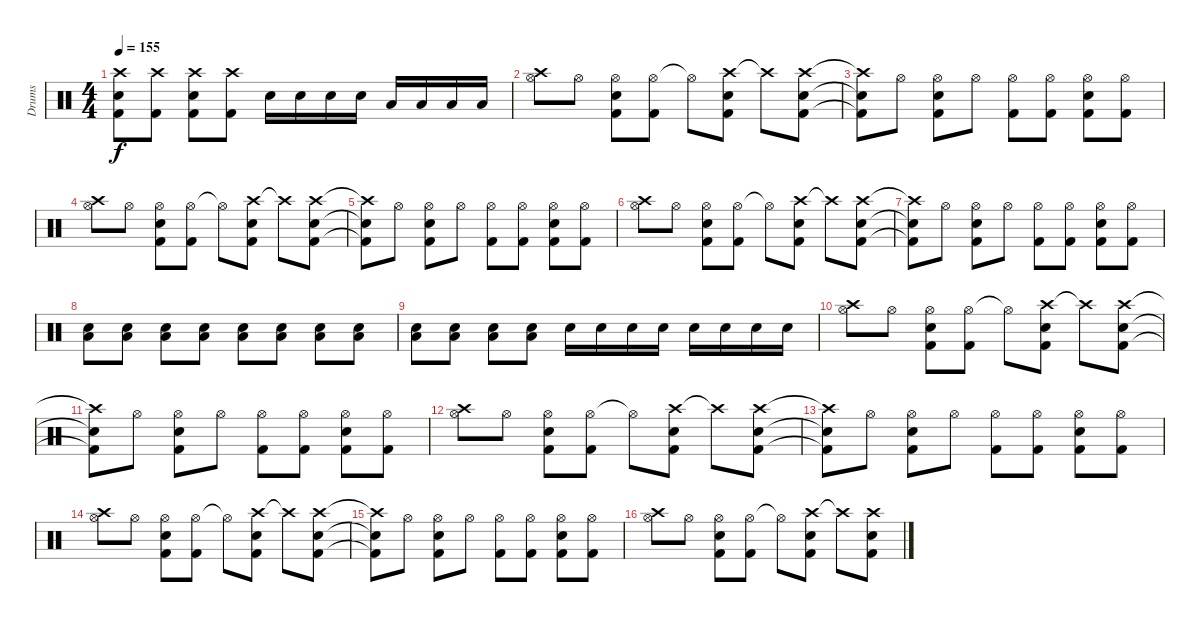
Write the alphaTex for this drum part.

\track ("Drums" "Drums") {instrument percussion}
\staff {score}
\articulation defaults
\ts (4 4)
\tempo 155
\clef neutral
\ks c
("Crash high (hit)" "Snare (hit) 2" "Kick (hit) 2").8{dy f} ("Crash high (hit)" "Kick (hit) 2").8 ("Crash high (hit)" "Snare (hit) 2" "Kick (hit) 2").8 ("Crash high (hit)" "Kick (hit) 2").8 "Snare (hit) 2".16 "Snare (hit) 2".16 "Snare (hit) 2".16 "Snare (hit) 2".16 "Low Floor Tom (hit)".16 "Low Floor Tom (hit)".16 "Low Floor Tom (hit)".16 "Low Floor Tom (hit)".16 |
("Crash high (hit)" "Hi-Hat (open)").8 "Hi-Hat (open)".8 ("Hi-Hat (open)" "Kick (hit) 2" "Snare (hit) 2").8 ("Hi-Hat (open)" "Kick (hit) 2").8 "Hi-Hat (open)"{t}.8 ("Crash high (hit)" "Kick (hit) 2" "Snare (hit) 2").8 "Crash high (hit)"{t}.8 ("Crash high (hit)" "Kick (hit) 2" "Snare (hit) 2").8 |
("Crash high (hit)"{t} "Kick (hit) 2"{t} "Snare (hit) 2"{t}).8 "Hi-Hat (open)".8 ("Hi-Hat (open)" "Kick (hit) 2" "Snare (hit) 2").8 "Hi-Hat (open)".8 ("Hi-Hat (open)" "Kick (hit) 2").8 ("Hi-Hat (open)" "Kick (hit) 2").8 ("Hi-Hat (open)" "Kick (hit) 2" "Snare (hit) 2").8 ("Hi-Hat (open)" "Kick (hit) 2").8 |
("Crash high (hit)" "Hi-Hat (open)").8 "Hi-Hat (open)".8 ("Hi-Hat (open)" "Kick (hit) 2" "Snare (hit) 2").8 ("Hi-Hat (open)" "Kick (hit) 2").8 "Hi-Hat (open)"{t}.8 ("Crash high (hit)" "Kick (hit) 2" "Snare (hit) 2").8 "Crash high (hit)"{t}.8 ("Crash high (hit)" "Kick (hit) 2" "Snare (hit) 2").8 |
("Crash high (hit)"{t} "Kick (hit) 2"{t} "Snare (hit) 2"{t}).8 "Hi-Hat (open)".8 ("Hi-Hat (open)" "Kick (hit) 2" "Snare (hit) 2").8 "Hi-Hat (open)".8 ("Hi-Hat (open)" "Kick (hit) 2").8 ("Hi-Hat (open)" "Kick (hit) 2").8 ("Hi-Hat (open)" "Kick (hit) 2" "Snare (hit) 2").8 ("Hi-Hat (open)" "Kick (hit) 2").8 |
("Crash high (hit)" "Hi-Hat (open)").8 "Hi-Hat (open)".8 ("Hi-Hat (open)" "Kick (hit) 2" "Snare (hit) 2").8 ("Hi-Hat (open)" "Kick (hit) 2").8 "Hi-Hat (open)"{t}.8 ("Crash high (hit)" "Kick (hit) 2" "Snare (hit) 2").8 "Crash high (hit)"{t}.8 ("Crash high (hit)" "Kick (hit) 2" "Snare (hit) 2").8 |
("Crash high (hit)"{t} "Kick (hit) 2"{t} "Snare (hit) 2"{t}).8 "Hi-Hat (open)".8 ("Hi-Hat (open)" "Kick (hit) 2" "Snare (hit) 2").8 "Hi-Hat (open)".8 ("Hi-Hat (open)" "Kick (hit) 2").8 ("Hi-Hat (open)" "Kick (hit) 2").8 ("Hi-Hat (open)" "Kick (hit) 2" "Snare (hit) 2").8 ("Hi-Hat (open)" "Kick (hit) 2").8 |
("Snare (hit) 2" "Low Floor Tom (hit)").8 ("Snare (hit) 2" "Low Floor Tom (hit)").8 ("Snare (hit) 2" "Low Floor Tom (hit)").8 ("Snare (hit) 2" "Low Floor Tom (hit)").8 ("Snare (hit) 2" "Low Floor Tom (hit)").8 ("Snare (hit) 2" "Low Floor Tom (hit)").8 ("Snare (hit) 2" "Low Floor Tom (hit)").8 ("Snare (hit) 2" "Low Floor Tom (hit)").8 |
("Snare (hit) 2" "Low Floor Tom (hit)").8 ("Snare (hit) 2" "Low Floor Tom (hit)").8 ("Snare (hit) 2" "Low Floor Tom (hit)").8 ("Snare (hit) 2" "Low Floor Tom (hit)").8 "Snare (hit) 2".16 "Snare (hit) 2".16 "Snare (hit) 2".16 "Snare (hit) 2".16 "Snare (hit) 2".16 "Snare (hit) 2".16 "Snare (hit) 2".16 "Snare (hit) 2".16 |
("Crash high (hit)" "Hi-Hat (open)").8 "Hi-Hat (open)".8 ("Hi-Hat (open)" "Kick (hit) 2" "Snare (hit) 2").8 ("Hi-Hat (open)" "Kick (hit) 2").8 "Hi-Hat (open)"{t}.8 ("Crash high (hit)" "Kick (hit) 2" "Snare (hit) 2").8 "Crash high (hit)"{t}.8 ("Crash high (hit)" "Kick (hit) 2" "Snare (hit) 2").8 |
("Crash high (hit)"{t} "Kick (hit) 2"{t} "Snare (hit) 2"{t}).8 "Hi-Hat (open)".8 ("Hi-Hat (open)" "Kick (hit) 2" "Snare (hit) 2").8 "Hi-Hat (open)".8 ("Hi-Hat (open)" "Kick (hit) 2").8 ("Hi-Hat (open)" "Kick (hit) 2").8 ("Hi-Hat (open)" "Kick (hit) 2" "Snare (hit) 2").8 ("Hi-Hat (open)" "Kick (hit) 2").8 |
("Crash high (hit)" "Hi-Hat (open)").8 "Hi-Hat (open)".8 ("Hi-Hat (open)" "Kick (hit) 2" "Snare (hit) 2").8 ("Hi-Hat (open)" "Kick (hit) 2").8 "Hi-Hat (open)"{t}.8 ("Crash high (hit)" "Kick (hit) 2" "Snare (hit) 2").8 "Crash high (hit)"{t}.8 ("Crash high (hit)" "Kick (hit) 2" "Snare (hit) 2").8 |
("Crash high (hit)"{t} "Kick (hit) 2"{t} "Snare (hit) 2"{t}).8 "Hi-Hat (open)".8 ("Hi-Hat (open)" "Kick (hit) 2" "Snare (hit) 2").8 "Hi-Hat (open)".8 ("Hi-Hat (open)" "Kick (hit) 2").8 ("Hi-Hat (open)" "Kick (hit) 2").8 ("Hi-Hat (open)" "Kick (hit) 2" "Snare (hit) 2").8 ("Hi-Hat (open)" "Kick (hit) 2").8 |
("Crash high (hit)" "Hi-Hat (open)").8 "Hi-Hat (open)".8 ("Hi-Hat (open)" "Kick (hit) 2" "Snare (hit) 2").8 ("Hi-Hat (open)" "Kick (hit) 2").8 "Hi-Hat (open)"{t}.8 ("Crash high (hit)" "Kick (hit) 2" "Snare (hit) 2").8 "Crash high (hit)"{t}.8 ("Crash high (hit)" "Kick (hit) 2" "Snare (hit) 2").8 |
("Crash high (hit)"{t} "Kick (hit) 2"{t} "Snare (hit) 2"{t}).8 "Hi-Hat (open)".8 ("Hi-Hat (open)" "Kick (hit) 2" "Snare (hit) 2").8 "Hi-Hat (open)".8 ("Hi-Hat (open)" "Kick (hit) 2").8 ("Hi-Hat (open)" "Kick (hit) 2").8 ("Hi-Hat (open)" "Kick (hit) 2" "Snare (hit) 2").8 ("Hi-Hat (open)" "Kick (hit) 2").8 |
("Crash high (hit)" "Hi-Hat (open)").8 "Hi-Hat (open)".8 ("Hi-Hat (open)" "Kick (hit) 2" "Snare (hit) 2").8 ("Hi-Hat (open)" "Kick (hit) 2").8 "Hi-Hat (open)"{t}.8 ("Crash high (hit)" "Kick (hit) 2" "Snare (hit) 2").8 "Crash high (hit)"{t}.8 ("Crash high (hit)" "Kick (hit) 2" "Snare (hit) 2").8
